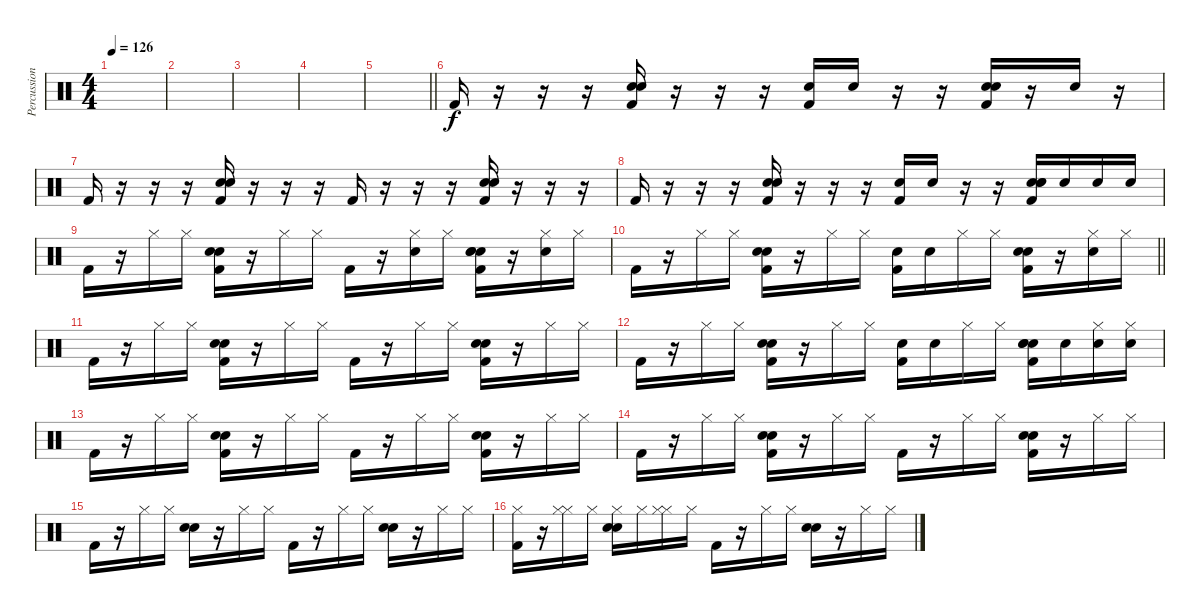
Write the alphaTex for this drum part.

\track ("Percussion" "Percussion") {instrument percussion}
\staff {score}
\articulation defaults
\ts (4 4)
\tempo 126
\clef neutral
\ks c
|
|
|
|
\barLineRight lightlight
|
"Kick (hit) 2".16 r.16 r.16 r.16 ("Hand Clap (hit)" "Electric Snare (hit)" "Kick (hit) 2").16 r.16 r.16 r.16 ("Snare (hit) 2" "Kick (hit) 2").16 "Snare (hit) 2".16 r.16 r.16 ("Hand Clap (hit)" "Electric Snare (hit)" "Kick (hit) 2").16 r.16 "Snare (hit) 2".16 r.16 |
"Kick (hit) 2".16 r.16 r.16 r.16 ("Hand Clap (hit)" "Electric Snare (hit)" "Kick (hit) 2").16 r.16 r.16 r.16 "Kick (hit) 2".16 r.16 r.16 r.16 ("Hand Clap (hit)" "Electric Snare (hit)" "Kick (hit) 2").16 r.16 r.16 r.16 |
"Kick (hit) 2".16 r.16 r.16 r.16 ("Hand Clap (hit)" "Electric Snare (hit)" "Kick (hit) 2").16 r.16 r.16 r.16 ("Snare (hit) 2" "Kick (hit) 2").16 "Snare (hit) 2".16 r.16 r.16 ("Snare (hit) 2" "Hand Clap (hit)" "Electric Snare (hit)" "Kick (hit) 2").16 "Snare (hit) 2".16 "Snare (hit) 2".16 "Snare (hit) 2".16 |
"Kick (hit) 2".16 r.16 "Hi-Hat (closed)".16 "Hi-Hat (closed)".16 ("Hand Clap (hit)" "Electric Snare (hit)" "Kick (hit) 2").16 r.16 "Hi-Hat (closed)".16 "Hi-Hat (closed)".16 "Kick (hit) 2".16 r.16 ("Hi-Hat (closed)" "Snare (hit) 2").16 "Hi-Hat (closed)".16 ("Snare (hit) 2" "Hand Clap (hit)" "Electric Snare (hit)" "Kick (hit) 2").16 r.16 ("Hi-Hat (closed)" "Snare (hit) 2").16 "Hi-Hat (closed)".16 |
\barLineRight lightlight "Kick (hit) 2".16
r.16 "Hi-Hat (closed)".16 "Hi-Hat (closed)".16 ("Hand Clap (hit)" "Electric Snare (hit)" "Kick (hit) 2").16 r.16 "Hi-Hat (closed)".16 "Hi-Hat (closed)".16 ("Snare (hit) 2" "Kick (hit) 2").16 "Snare (hit) 2".16 "Hi-Hat (closed)".16 "Hi-Hat (closed)".16 ("Hand Clap (hit)" "Electric Snare (hit)" "Kick (hit) 2").16 r.16 ("Hi-Hat (closed)" "Snare (hit) 2").16 "Hi-Hat (closed)".16 |
"Kick (hit) 2".16 r.16 "Hi-Hat (closed)".16 "Hi-Hat (closed)".16 ("Hand Clap (hit)" "Electric Snare (hit)" "Kick (hit) 2").16 r.16 "Hi-Hat (closed)".16 "Hi-Hat (closed)".16 "Kick (hit) 2".16 r.16 "Hi-Hat (closed)".16 "Hi-Hat (closed)".16 ("Hand Clap (hit)" "Electric Snare (hit)" "Kick (hit) 2").16 r.16 "Hi-Hat (closed)".16 "Hi-Hat (closed)".16 |
"Kick (hit) 2".16 r.16 "Hi-Hat (closed)".16 "Hi-Hat (closed)".16 ("Hand Clap (hit)" "Electric Snare (hit)" "Kick (hit) 2").16 r.16 "Hi-Hat (closed)".16 "Hi-Hat (closed)".16 ("Snare (hit) 2" "Kick (hit) 2").16 "Snare (hit) 2".16 "Hi-Hat (closed)".16 "Hi-Hat (closed)".16 ("Snare (hit) 2" "Hand Clap (hit)" "Electric Snare (hit)" "Kick (hit) 2").16 "Snare (hit) 2".16 ("Hi-Hat (closed)" "Snare (hit) 2").16 ("Hi-Hat (closed)" "Snare (hit) 2").16 |
"Kick (hit) 2".16 r.16 "Hi-Hat (closed)".16 "Hi-Hat (closed)".16 ("Hand Clap (hit)" "Electric Snare (hit)" "Kick (hit) 2").16 r.16 "Hi-Hat (closed)".16 "Hi-Hat (closed)".16 "Kick (hit) 2".16 r.16 "Hi-Hat (closed)".16 "Hi-Hat (closed)".16 ("Hand Clap (hit)" "Electric Snare (hit)" "Kick (hit) 2").16 r.16 "Hi-Hat (closed)".16 "Hi-Hat (closed)".16 |
"Kick (hit) 2".16 r.16 "Hi-Hat (closed)".16 "Hi-Hat (closed)".16 ("Hand Clap (hit)" "Electric Snare (hit)" "Kick (hit) 2").16 r.16 "Hi-Hat (closed)".16 "Hi-Hat (closed)".16 "Kick (hit) 2".16 r.16 "Hi-Hat (closed)".16 "Hi-Hat (closed)".16 ("Hand Clap (hit)" "Electric Snare (hit)" "Kick (hit) 2").16 r.16 "Hi-Hat (closed)".16 "Hi-Hat (closed)".16 |
"Kick (hit) 2".16 r.16 "Hi-Hat (closed)".16 "Hi-Hat (closed)".16 ("Hand Clap (hit)" "Electric Snare (hit)").16 r.16 "Hi-Hat (closed)".16 "Hi-Hat (closed)".16 "Kick (hit) 2".16 r.16 "Hi-Hat (closed)".16 "Hi-Hat (closed)".16 ("Hand Clap (hit)" "Electric Snare (hit)").16 r.16 "Hi-Hat (closed)".16 "Hi-Hat (closed)".16 |
("Hi-Hat (closed)" "Kick (hit) 2").16 r.16 ("Hi-Hat (closed)" "Hi-Hat (closed)").16 "Hi-Hat (closed)".16 ("Hi-Hat (closed)" "Hand Clap (hit)" "Electric Snare (hit)").16 "Hi-Hat (closed)".16 ("Hi-Hat (closed)" "Hi-Hat (closed)").16 "Hi-Hat (closed)".16 "Kick (hit) 2".16 r.16 "Hi-Hat (closed)".16 "Hi-Hat (closed)".16 ("Hand Clap (hit)" "Electric Snare (hit)").16 r.16 "Hi-Hat (closed)".16 "Hi-Hat (closed)".16
